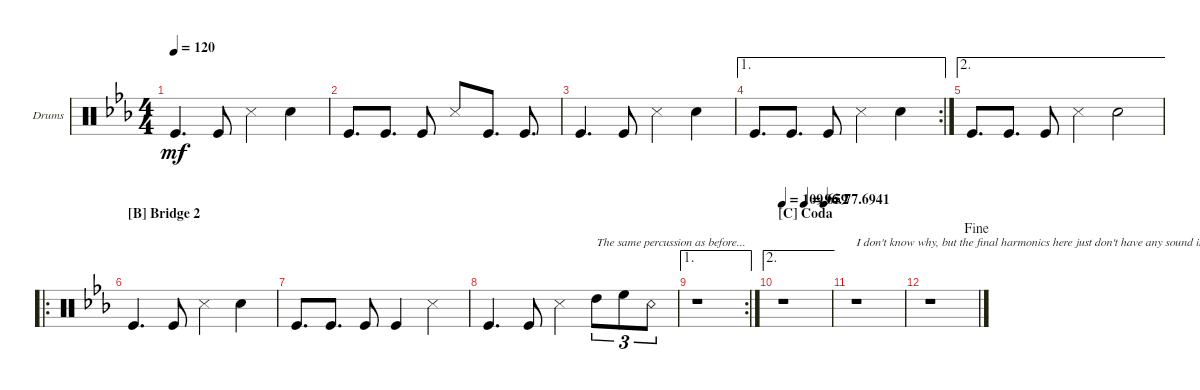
\defaultSystemsLayout 4
\bracketExtendMode groupsimilarinstruments
\firstSystemTrackNameOrientation horizontal
\otherSystemsTrackNameOrientation horizontal
\track ("Percussion" "Drums") {instrument percussion}
\staff {score}
\articulation defaults
\ts (4 4)
\tempo 120
\clef neutral
\ks eb "Kick (hit)".4{d dy mf} "Kick (hit)".8 "Snare (side stick) 3".4 "Snare (hit) 2".4
|
"Kick (hit)".8{d} "Kick (hit)".8{d} "Kick (hit)".8 "Snare (side stick) 3".8 "Kick (hit)".8{d} "Kick (hit)".8{d} |
"Kick (hit)".4{d} "Kick (hit)".8 "Snare (side stick) 3".4 "Snare (hit) 2".4 |
\ae 1
\rc 2 "Kick (hit)".8{d} "Kick (hit)".8{d} "Kick (hit)".8 "Snare (side stick) 3".4 "Snare (hit) 2".4
|
\ae 2 "Kick (hit)".8{d} "Kick (hit)".8{d} "Kick (hit)".8 "Snare (side stick) 3".4 "Snare (hit) 2".2
|
\ro
\section ("B" "Bridge 2")
"Kick (hit)".4{d} "Kick (hit)".8 "Snare (side stick) 3".4 "Snare (hit) 2".4 |
"Kick (hit)".8{d} "Kick (hit)".8{d} "Kick (hit)".8 "Kick (hit)".4 "Snare (side stick) 3".4 |
"Kick (hit)".4{d} "Kick (hit)".8 "Snare (side stick) 3".4 "High Tom (hit)".8{tu (3 2) txt "The same percussion as before..."} "High Floor Tom (hit)".8{tu (3 2)} "Snare (rim shot)".8{tu (3 2)} |
\ae 1
\rc 2
r.1 |
\ae 2
\section ("C" "Coda")
\tempo
109.659
\tempo (96.2 0.45625)
\tempo (77.6941 0.8625)
r.1 |
r.1{txt "I don't know why, but the final harmonics here just don't have any sound in my GP6, but IRL they definitely sound SCARY!"} |
\jump fine
r.1
